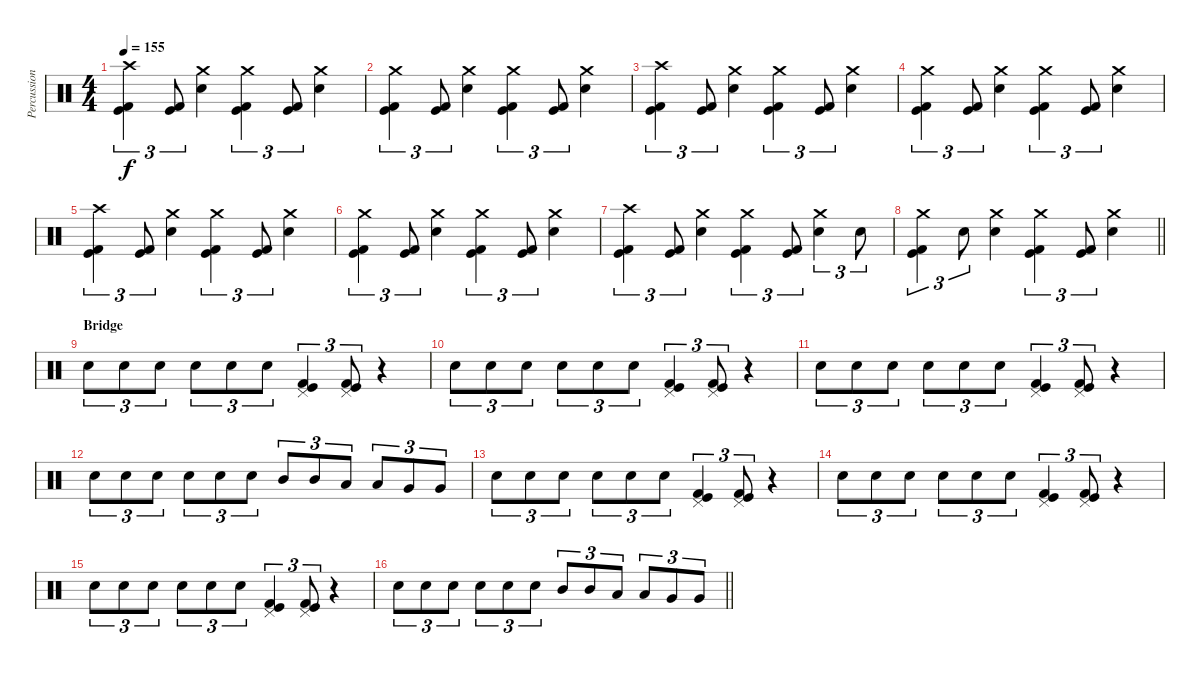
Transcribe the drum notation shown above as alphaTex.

\track ("Percussion" "Percussion") {instrument percussion}
\staff {score}
\articulation defaults
\ts (4 4)
\section ("" "")
\tempo 155
\clef neutral
\ks c
("Crash high (hit)" "Kick (hit)" "Kick (hit) 2").4{tu (3 2) dy f} ("Kick (hit)" "Kick (hit) 2").8{tu (3 2)} ("Crash medium (hit)" "Electric Snare (hit)").4 ("Crash medium (hit)" "Kick (hit)" "Kick (hit) 2").4{tu (3 2)} ("Kick (hit)" "Kick (hit) 2").8{tu (3 2)} ("Crash medium (hit)" "Electric Snare (hit)").4 |
("Crash medium (hit)" "Kick (hit)" "Kick (hit) 2").4{tu (3 2)} ("Kick (hit)" "Kick (hit) 2").8{tu (3 2)} ("Crash medium (hit)" "Electric Snare (hit)").4 ("Crash medium (hit)" "Kick (hit)" "Kick (hit) 2").4{tu (3 2)} ("Kick (hit)" "Kick (hit) 2").8{tu (3 2)} ("Crash medium (hit)" "Electric Snare (hit)").4 |
("Crash high (hit)" "Kick (hit)" "Kick (hit) 2").4{tu (3 2)} ("Kick (hit)" "Kick (hit) 2").8{tu (3 2)} ("Crash medium (hit)" "Electric Snare (hit)").4 ("Crash medium (hit)" "Kick (hit)" "Kick (hit) 2").4{tu (3 2)} ("Kick (hit)" "Kick (hit) 2").8{tu (3 2)} ("Crash medium (hit)" "Electric Snare (hit)").4 |
("Crash medium (hit)" "Kick (hit)" "Kick (hit) 2").4{tu (3 2)} ("Kick (hit)" "Kick (hit) 2").8{tu (3 2)} ("Crash medium (hit)" "Electric Snare (hit)").4 ("Crash medium (hit)" "Kick (hit)" "Kick (hit) 2").4{tu (3 2)} ("Kick (hit)" "Kick (hit) 2").8{tu (3 2)} ("Crash medium (hit)" "Electric Snare (hit)").4 |
("Crash high (hit)" "Kick (hit)" "Kick (hit) 2").4{tu (3 2)} ("Kick (hit)" "Kick (hit) 2").8{tu (3 2)} ("Crash medium (hit)" "Electric Snare (hit)").4 ("Crash medium (hit)" "Kick (hit)" "Kick (hit) 2").4{tu (3 2)} ("Kick (hit)" "Kick (hit) 2").8{tu (3 2)} ("Crash medium (hit)" "Electric Snare (hit)").4 |
("Crash medium (hit)" "Kick (hit)" "Kick (hit) 2").4{tu (3 2)} ("Kick (hit)" "Kick (hit) 2").8{tu (3 2)} ("Crash medium (hit)" "Electric Snare (hit)").4 ("Crash medium (hit)" "Kick (hit)" "Kick (hit) 2").4{tu (3 2)} ("Kick (hit)" "Kick (hit) 2").8{tu (3 2)} ("Crash medium (hit)" "Electric Snare (hit)").4 |
("Crash high (hit)" "Kick (hit)" "Kick (hit) 2").4{tu (3 2)} ("Kick (hit)" "Kick (hit) 2").8{tu (3 2)} ("Crash medium (hit)" "Electric Snare (hit)").4 ("Crash medium (hit)" "Kick (hit)" "Kick (hit) 2").4{tu (3 2)} ("Kick (hit)" "Kick (hit) 2").8{tu (3 2)} ("Crash medium (hit)" "Electric Snare (hit)").4{tu (3 2)} "Electric Snare (hit)".8{tu (3 2)} |
\barLineRight lightlight
("Crash medium (hit)" "Kick (hit)" "Kick (hit) 2").4{tu (3 2)} "Electric Snare (hit)".8{tu (3 2)} ("Crash medium (hit)" "Electric Snare (hit)").4 ("Crash medium (hit)" "Kick (hit)" "Kick (hit) 2").4{tu (3 2)} ("Kick (hit)" "Kick (hit) 2").8{tu (3 2)} ("Crash medium (hit)" "Electric Snare (hit)").4 |
\section ("" "Bridge")
"Electric Snare (hit)".8{tu (3 2)} "Electric Snare (hit)".8{tu (3 2)} "Electric Snare (hit)".8{tu (3 2)} "Electric Snare (hit)".8{tu (3 2)} "Electric Snare (hit)".8{tu (3 2)} "Electric Snare (hit)".8{tu (3 2)} ("Pedal Hi-Hat (hit)" "Kick (hit)" "Kick (hit) 2").4{tu (3 2)} ("Pedal Hi-Hat (hit)" "Kick (hit)" "Kick (hit) 2").8{tu (3 2)} r.4 |
"Electric Snare (hit)".8{tu (3 2)} "Electric Snare (hit)".8{tu (3 2)} "Electric Snare (hit)".8{tu (3 2)} "Electric Snare (hit)".8{tu (3 2)} "Electric Snare (hit)".8{tu (3 2)} "Electric Snare (hit)".8{tu (3 2)} ("Pedal Hi-Hat (hit)" "Kick (hit)" "Kick (hit) 2").4{tu (3 2)} ("Pedal Hi-Hat (hit)" "Kick (hit)" "Kick (hit) 2").8{tu (3 2)} r.4 |
"Electric Snare (hit)".8{tu (3 2)} "Electric Snare (hit)".8{tu (3 2)} "Electric Snare (hit)".8{tu (3 2)} "Electric Snare (hit)".8{tu (3 2)} "Electric Snare (hit)".8{tu (3 2)} "Electric Snare (hit)".8{tu (3 2)} ("Pedal Hi-Hat (hit)" "Kick (hit)" "Kick (hit) 2").4{tu (3 2)} ("Pedal Hi-Hat (hit)" "Kick (hit)" "Kick (hit) 2").8{tu (3 2)} r.4 |
"Electric Snare (hit)".8{tu (3 2)} "Electric Snare (hit)".8{tu (3 2)} "Electric Snare (hit)".8{tu (3 2)} "Electric Snare (hit)".8{tu (3 2)} "Electric Snare (hit)".8{tu (3 2)} "Electric Snare (hit)".8{tu (3 2)} "Mid Tom (hit)".8{tu (3 2)} "Mid Tom (hit)".8{tu (3 2)} "Low Tom (hit)".8{tu (3 2)} "Low Tom (hit)".8{tu (3 2)} "Very Low Tom (hit)".8{tu (3 2)} "Very Low Tom (hit)".8{tu (3 2)} |
"Electric Snare (hit)".8{tu (3 2)} "Electric Snare (hit)".8{tu (3 2)} "Electric Snare (hit)".8{tu (3 2)} "Electric Snare (hit)".8{tu (3 2)} "Electric Snare (hit)".8{tu (3 2)} "Electric Snare (hit)".8{tu (3 2)} ("Pedal Hi-Hat (hit)" "Kick (hit)" "Kick (hit) 2").4{tu (3 2)} ("Pedal Hi-Hat (hit)" "Kick (hit)" "Kick (hit) 2").8{tu (3 2)} r.4 |
"Electric Snare (hit)".8{tu (3 2)} "Electric Snare (hit)".8{tu (3 2)} "Electric Snare (hit)".8{tu (3 2)} "Electric Snare (hit)".8{tu (3 2)} "Electric Snare (hit)".8{tu (3 2)} "Electric Snare (hit)".8{tu (3 2)} ("Pedal Hi-Hat (hit)" "Kick (hit)" "Kick (hit) 2").4{tu (3 2)} ("Pedal Hi-Hat (hit)" "Kick (hit)" "Kick (hit) 2").8{tu (3 2)} r.4 |
"Electric Snare (hit)".8{tu (3 2)} "Electric Snare (hit)".8{tu (3 2)} "Electric Snare (hit)".8{tu (3 2)} "Electric Snare (hit)".8{tu (3 2)} "Electric Snare (hit)".8{tu (3 2)} "Electric Snare (hit)".8{tu (3 2)} ("Pedal Hi-Hat (hit)" "Kick (hit)" "Kick (hit) 2").4{tu (3 2)} ("Pedal Hi-Hat (hit)" "Kick (hit)" "Kick (hit) 2").8{tu (3 2)} r.4 |
\barLineRight lightlight "Electric Snare (hit)".8{tu (3 2)} "Electric Snare (hit)".8{tu (3 2)} "Electric Snare (hit)".8{tu (3 2)} "Electric Snare (hit)".8{tu (3 2)} "Electric Snare (hit)".8{tu (3 2)} "Electric Snare (hit)".8{tu (3 2)} "Mid Tom (hit)".8{tu (3 2)} "Mid Tom (hit)".8{tu (3 2)} "Low Tom (hit)".8{tu (3 2)} "Low Tom (hit)".8{tu (3 2)} "Very Low Tom (hit)".8{tu (3 2)} "Very Low Tom (hit)".8{tu (3 2)}
